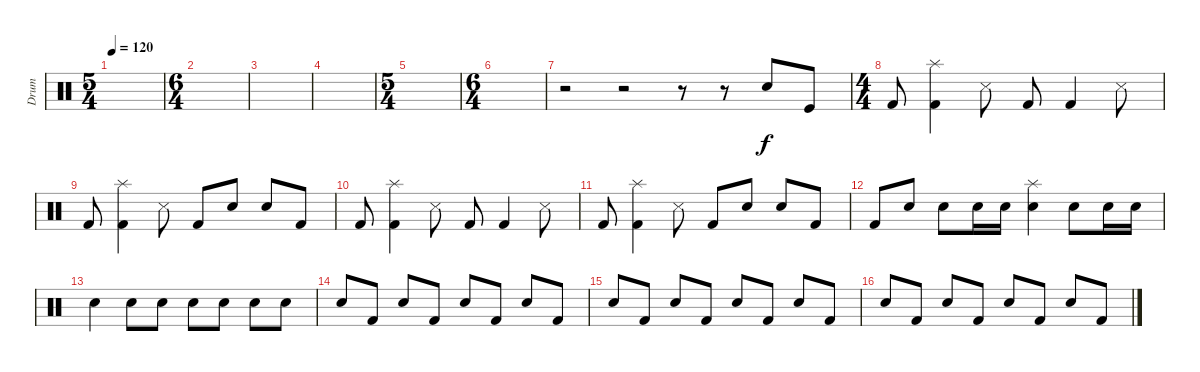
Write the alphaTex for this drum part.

\track ("Drum" "Drum") {instrument percussion}
\staff {score}
\articulation defaults
\ts (5 4)
\tempo 120
\clef neutral
\ks c
|
\ts (6 4)
|
|
|
\ts (5 4)
|
\ts (6 4)
|
r.2 r.2 r.8 r.8 "Snare (hit) 2".8 "Kick (hit)".8 |
\ts (4 4)
"Kick (hit) 2".8 ("Splash (hit)" "Kick (hit) 2").4 "Snare (side stick) 3".8 "Kick (hit) 2".8 "Kick (hit) 2".4 "Snare (side stick) 3".8 |
"Kick (hit) 2".8 ("Splash (hit)" "Kick (hit) 2").4 "Snare (side stick) 3".8 "Kick (hit) 2".8 "Snare (hit) 2".8 "Snare (hit) 2".8 "Kick (hit) 2".8 |
"Kick (hit) 2".8 ("Splash (hit)" "Kick (hit) 2").4 "Snare (side stick) 3".8 "Kick (hit) 2".8 "Kick (hit) 2".4 "Snare (side stick) 3".8 |
"Kick (hit) 2".8 ("Splash (hit)" "Kick (hit) 2").4 "Snare (side stick) 3".8 "Kick (hit) 2".8 "Snare (hit) 2".8 "Snare (hit) 2".8 "Kick (hit) 2".8 |
"Kick (hit) 2".8 "Snare (hit) 2".8 "Snare (hit) 2".8 "Snare (hit) 2".16 "Snare (hit) 2".16 ("Splash (hit)" "Snare (hit) 2").4 "Snare (hit) 2".8 "Snare (hit) 2".16 "Snare (hit) 2".16 |
"Snare (hit) 2".4 "Snare (hit) 2".8 "Snare (hit) 2".8 "Snare (hit) 2".8 "Snare (hit) 2".8 "Snare (hit) 2".8 "Snare (hit) 2".8 |
"Snare (hit) 2".8 "Kick (hit) 2".8 "Snare (hit) 2".8 "Kick (hit) 2".8 "Snare (hit) 2".8 "Kick (hit) 2".8 "Snare (hit) 2".8 "Kick (hit) 2".8 |
"Snare (hit) 2".8 "Kick (hit) 2".8 "Snare (hit) 2".8 "Kick (hit) 2".8 "Snare (hit) 2".8 "Kick (hit) 2".8 "Snare (hit) 2".8 "Kick (hit) 2".8 |
"Snare (hit) 2".8 "Kick (hit) 2".8 "Snare (hit) 2".8 "Kick (hit) 2".8 "Snare (hit) 2".8 "Kick (hit) 2".8 "Snare (hit) 2".8 "Kick (hit) 2".8
